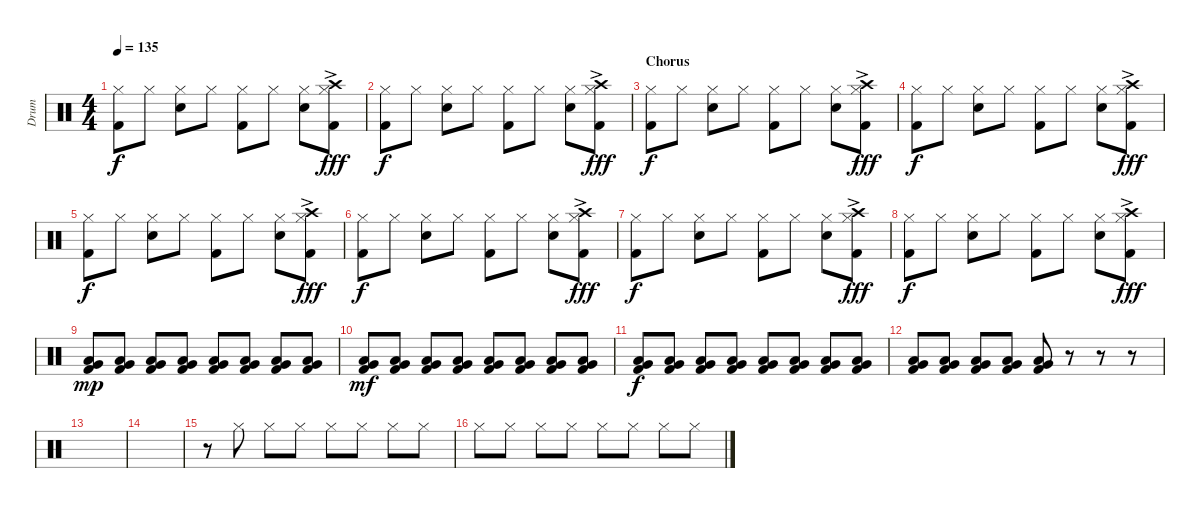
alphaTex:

\track ("Drum" "Drum") {instrument percussion}
\staff {score}
\articulation defaults
\ts (4 4)
\tempo 135
\clef neutral
\ks c
("Hi-Hat (closed)" "Kick (hit) 2").8{dy f} "Hi-Hat (closed)".8 ("Snare (hit) 2" "Hi-Hat (closed)").8 "Hi-Hat (closed)".8 ("Hi-Hat (closed)" "Kick (hit) 2").8 "Hi-Hat (closed)".8 ("Snare (hit) 2" "Hi-Hat (closed)").8 ("Crash high (hit)"{ac} "Hi-Hat (closed)" "Kick (hit) 2").8{dy fff} |
("Hi-Hat (closed)" "Kick (hit) 2").8{dy f} "Hi-Hat (closed)".8 ("Snare (hit) 2" "Hi-Hat (closed)").8 "Hi-Hat (closed)".8 ("Hi-Hat (closed)" "Kick (hit) 2").8 "Hi-Hat (closed)".8 ("Snare (hit) 2" "Hi-Hat (closed)").8 ("Crash high (hit)"{ac} "Hi-Hat (closed)" "Kick (hit) 2").8{dy fff} |
\section ("" "Chorus")
("Hi-Hat (closed)" "Kick (hit) 2").8{dy f} "Hi-Hat (closed)".8 ("Snare (hit) 2" "Hi-Hat (closed)").8 "Hi-Hat (closed)".8 ("Hi-Hat (closed)" "Kick (hit) 2").8 "Hi-Hat (closed)".8 ("Snare (hit) 2" "Hi-Hat (closed)").8 ("Crash high (hit)"{ac} "Hi-Hat (closed)" "Kick (hit) 2").8{dy fff} |
("Hi-Hat (closed)" "Kick (hit) 2").8{dy f} "Hi-Hat (closed)".8 ("Snare (hit) 2" "Hi-Hat (closed)").8 "Hi-Hat (closed)".8 ("Hi-Hat (closed)" "Kick (hit) 2").8 "Hi-Hat (closed)".8 ("Snare (hit) 2" "Hi-Hat (closed)").8 ("Crash high (hit)"{ac} "Hi-Hat (closed)" "Kick (hit) 2").8{dy fff} |
("Hi-Hat (closed)" "Kick (hit) 2").8{dy f} "Hi-Hat (closed)".8 ("Snare (hit) 2" "Hi-Hat (closed)").8 "Hi-Hat (closed)".8 ("Hi-Hat (closed)" "Kick (hit) 2").8 "Hi-Hat (closed)".8 ("Snare (hit) 2" "Hi-Hat (closed)").8 ("Crash high (hit)"{ac} "Hi-Hat (closed)" "Kick (hit) 2").8{dy fff} |
("Hi-Hat (closed)" "Kick (hit) 2").8{dy f} "Hi-Hat (closed)".8 ("Snare (hit) 2" "Hi-Hat (closed)").8 "Hi-Hat (closed)".8 ("Hi-Hat (closed)" "Kick (hit) 2").8 "Hi-Hat (closed)".8 ("Snare (hit) 2" "Hi-Hat (closed)").8 ("Crash high (hit)"{ac} "Hi-Hat (closed)" "Kick (hit) 2").8{dy fff} |
("Hi-Hat (closed)" "Kick (hit) 2").8{dy f} "Hi-Hat (closed)".8 ("Snare (hit) 2" "Hi-Hat (closed)").8 "Hi-Hat (closed)".8 ("Hi-Hat (closed)" "Kick (hit) 2").8 "Hi-Hat (closed)".8 ("Snare (hit) 2" "Hi-Hat (closed)").8 ("Crash high (hit)"{ac} "Hi-Hat (closed)" "Kick (hit) 2").8{dy fff} |
("Hi-Hat (closed)" "Kick (hit) 2").8{dy f} "Hi-Hat (closed)".8 ("Snare (hit) 2" "Hi-Hat (closed)").8 "Hi-Hat (closed)".8 ("Hi-Hat (closed)" "Kick (hit) 2").8 "Hi-Hat (closed)".8 ("Snare (hit) 2" "Hi-Hat (closed)").8 ("Crash high (hit)"{ac} "Hi-Hat (closed)" "Kick (hit) 2").8{dy fff} |
("Very Low Tom (hit)" "Low Floor Tom (hit)" "Kick (hit) 2").8{dy mp} ("Very Low Tom (hit)" "Low Floor Tom (hit)" "Kick (hit) 2").8 ("Very Low Tom (hit)" "Low Floor Tom (hit)" "Kick (hit) 2").8 ("Very Low Tom (hit)" "Low Floor Tom (hit)" "Kick (hit) 2").8 ("Very Low Tom (hit)" "Low Floor Tom (hit)" "Kick (hit) 2").8 ("Very Low Tom (hit)" "Low Floor Tom (hit)" "Kick (hit) 2").8 ("Very Low Tom (hit)" "Low Floor Tom (hit)" "Kick (hit) 2").8 ("Very Low Tom (hit)" "Low Floor Tom (hit)" "Kick (hit) 2").8 |
("Very Low Tom (hit)" "Low Floor Tom (hit)" "Kick (hit) 2").8{dy mf} ("Very Low Tom (hit)" "Low Floor Tom (hit)" "Kick (hit) 2").8 ("Very Low Tom (hit)" "Low Floor Tom (hit)" "Kick (hit) 2").8 ("Very Low Tom (hit)" "Low Floor Tom (hit)" "Kick (hit) 2").8 ("Very Low Tom (hit)" "Low Floor Tom (hit)" "Kick (hit) 2").8 ("Very Low Tom (hit)" "Low Floor Tom (hit)" "Kick (hit) 2").8 ("Very Low Tom (hit)" "Low Floor Tom (hit)" "Kick (hit) 2").8 ("Very Low Tom (hit)" "Low Floor Tom (hit)" "Kick (hit) 2").8 |
("Very Low Tom (hit)" "Low Floor Tom (hit)" "Kick (hit) 2").8{dy f} ("Very Low Tom (hit)" "Low Floor Tom (hit)" "Kick (hit) 2").8 ("Very Low Tom (hit)" "Low Floor Tom (hit)" "Kick (hit) 2").8 ("Very Low Tom (hit)" "Low Floor Tom (hit)" "Kick (hit) 2").8 ("Very Low Tom (hit)" "Low Floor Tom (hit)" "Kick (hit) 2").8 ("Very Low Tom (hit)" "Low Floor Tom (hit)" "Kick (hit) 2").8 ("Very Low Tom (hit)" "Low Floor Tom (hit)" "Kick (hit) 2").8 ("Very Low Tom (hit)" "Low Floor Tom (hit)" "Kick (hit) 2").8 |
("Very Low Tom (hit)" "Low Floor Tom (hit)" "Kick (hit) 2").8 ("Very Low Tom (hit)" "Low Floor Tom (hit)" "Kick (hit) 2").8 ("Very Low Tom (hit)" "Low Floor Tom (hit)" "Kick (hit) 2").8 ("Very Low Tom (hit)" "Low Floor Tom (hit)" "Kick (hit) 2").8 ("Very Low Tom (hit)" "Low Floor Tom (hit)" "Kick (hit) 2").8 r.8 r.8 r.8 |
|
|
r.8 "Hi-Hat (closed)".8 "Hi-Hat (closed)".8 "Hi-Hat (closed)".8 "Hi-Hat (closed)".8 "Hi-Hat (closed)".8 "Hi-Hat (closed)".8 "Hi-Hat (closed)".8 |
"Hi-Hat (closed)".8 "Hi-Hat (closed)".8 "Hi-Hat (closed)".8 "Hi-Hat (closed)".8 "Hi-Hat (closed)".8 "Hi-Hat (closed)".8 "Hi-Hat (closed)".8 "Hi-Hat (closed)".8
